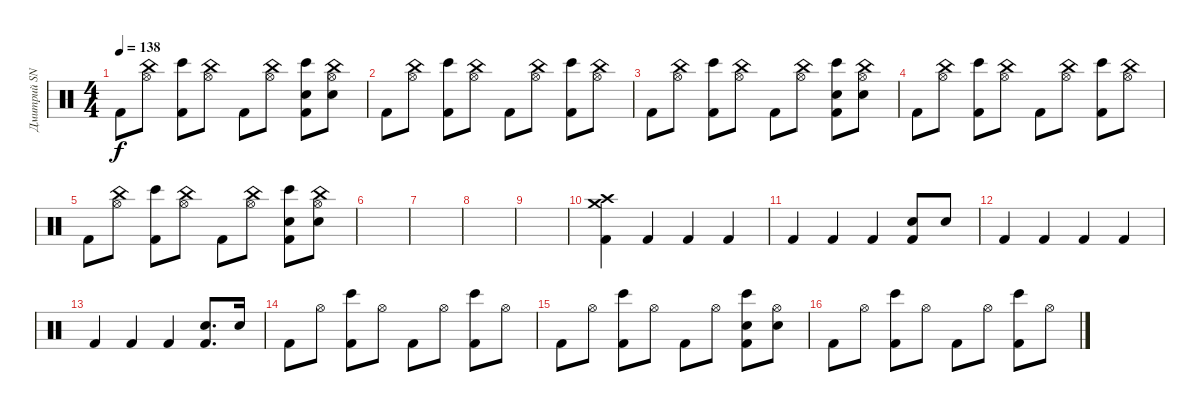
\track ("Дмитрий SNAKE Хакимов (ударные)" "Дмитрий SN") {instrument percussion}
\staff {score}
\articulation defaults
\ts (4 4)
\tempo 138
\clef neutral
\ks c "Kick (hit) 2".8{dy f}
("China (hit)" "Hi-Hat (open)").8 ("Bongo High (hit)" "Kick (hit) 2").8 ("China (hit)" "Hi-Hat (open)").8 "Kick (hit) 2".8 ("China (hit)" "Hi-Hat (open)").8 ("Bongo High (hit)" "Electric Snare (hit)" "Kick (hit) 2").8 ("China (hit)" "Hi-Hat (open)" "Electric Snare (hit)").8 |
"Kick (hit) 2".8 ("China (hit)" "Hi-Hat (open)").8 ("Bongo High (hit)" "Kick (hit) 2").8 ("China (hit)" "Hi-Hat (open)").8 "Kick (hit) 2".8 ("China (hit)" "Hi-Hat (open)").8 ("Bongo High (hit)" "Kick (hit) 2").8 ("China (hit)" "Hi-Hat (open)").8 |
"Kick (hit) 2".8 ("China (hit)" "Hi-Hat (open)").8 ("Bongo High (hit)" "Kick (hit) 2").8 ("China (hit)" "Hi-Hat (open)").8 "Kick (hit) 2".8 ("China (hit)" "Hi-Hat (open)").8 ("Bongo High (hit)" "Electric Snare (hit)" "Kick (hit) 2").8 ("China (hit)" "Hi-Hat (open)" "Electric Snare (hit)").8 |
"Kick (hit) 2".8 ("China (hit)" "Hi-Hat (open)").8 ("Bongo High (hit)" "Kick (hit) 2").8 ("China (hit)" "Hi-Hat (open)").8 "Kick (hit) 2".8 ("China (hit)" "Hi-Hat (open)").8 ("Bongo High (hit)" "Kick (hit) 2").8 ("China (hit)" "Hi-Hat (open)").8 |
"Kick (hit) 2".8 ("China (hit)" "Hi-Hat (open)").8 ("Bongo High (hit)" "Kick (hit) 2").8 ("China (hit)" "Hi-Hat (open)").8 "Kick (hit) 2".8 ("China (hit)" "Hi-Hat (open)").8 ("Bongo High (hit)" "Electric Snare (hit)" "Kick (hit) 2").8 ("China (hit)" "Hi-Hat (open)" "Electric Snare (hit)").8 |
|
|
|
|
("Crash high (hit)" "Crash medium (hit)" "Kick (hit) 2").4 "Kick (hit) 2".4 "Kick (hit) 2".4 "Kick (hit) 2".4 |
"Kick (hit) 2".4 "Kick (hit) 2".4 "Kick (hit) 2".4 ("Electric Snare (hit)" "Kick (hit) 2").8 "Electric Snare (hit)".8 |
"Kick (hit) 2".4 "Kick (hit) 2".4 "Kick (hit) 2".4 "Kick (hit) 2".4 |
"Kick (hit) 2".4 "Kick (hit) 2".4 "Kick (hit) 2".4 ("Electric Snare (hit)" "Kick (hit) 2").8{d} "Electric Snare (hit)".16 |
"Kick (hit) 2".8 "Hi-Hat (open)".8 ("Bongo High (hit)" "Kick (hit) 2").8 "Hi-Hat (open)".8 "Kick (hit) 2".8 "Hi-Hat (open)".8 ("Bongo High (hit)" "Kick (hit) 2").8 "Hi-Hat (open)".8 |
"Kick (hit) 2".8 "Hi-Hat (open)".8 ("Bongo High (hit)" "Kick (hit) 2").8 "Hi-Hat (open)".8 "Kick (hit) 2".8 "Hi-Hat (open)".8 ("Bongo High (hit)" "Electric Snare (hit)" "Kick (hit) 2").8 ("Hi-Hat (open)" "Electric Snare (hit)").8 |
"Kick (hit) 2".8 "Hi-Hat (open)".8 ("Bongo High (hit)" "Kick (hit) 2").8 "Hi-Hat (open)".8 "Kick (hit) 2".8 "Hi-Hat (open)".8 ("Bongo High (hit)" "Kick (hit) 2").8 "Hi-Hat (open)".8
